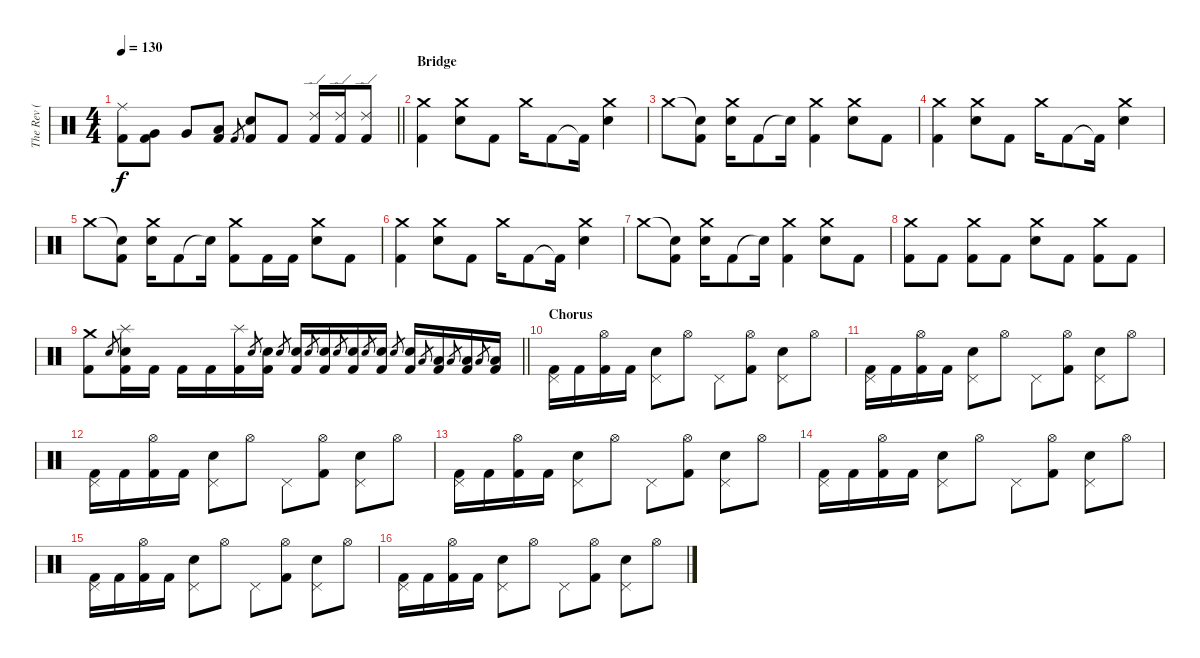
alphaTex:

\track ("The Rev ( Drums )" "The Rev ( ") {instrument percussion}
\staff {score}
\articulation defaults
\ts (4 4)
\tempo 130
\clef neutral
\barLineRight lightlight
\ks c
("Ride (middle)" "Kick (hit) 2").8{dy f} ("Very Low Tom (hit)" "Kick (hit) 2").8 "Very Low Tom (hit)".8 ("Low Floor Tom (hit)" "Kick (hit) 2").8 "Kick (hit) 2".8{gr} ("Snare (hit) 2" "Kick (hit) 2").8 "Kick (hit) 2".8 ("Ride (edge) 2" "Kick (hit) 2").16 ("Ride (edge) 2" "Kick (hit) 2").16 ("Ride (edge) 2" "Kick (hit) 2").8 |
\section ("" "Bridge")
("Crash medium (hit)" "Kick (hit) 2").4 ("Crash medium (hit)" "Snare (hit) 2").8 "Kick (hit) 2".8 "Crash medium (hit)".16 "Kick (hit) 2".8 "Kick (hit) 2"{t}.16 ("Crash medium (hit)" "Snare (hit) 2").4 |
"Crash medium (hit)".8 ("Snare (hit)"{t} "Kick (hit) 2").8 ("Crash medium (hit)" "Snare (hit) 2").16 "Kick (hit) 2".8 "Snare (hit)"{t}.16 ("Crash medium (hit)" "Kick (hit) 2").4 ("Crash medium (hit)" "Snare (hit) 2").8 "Kick (hit) 2".8 |
("Crash medium (hit)" "Kick (hit) 2").4 ("Crash medium (hit)" "Snare (hit) 2").8 "Kick (hit) 2".8 "Crash medium (hit)".16 "Kick (hit) 2".8 "Kick (hit) 2"{t}.16 ("Crash medium (hit)" "Snare (hit) 2").4 |
"Crash medium (hit)".8 ("Snare (hit)"{t} "Kick (hit) 2").8 ("Crash medium (hit)" "Snare (hit) 2").16 "Kick (hit) 2".8 "Snare (hit)"{t}.16 ("Crash medium (hit)" "Kick (hit) 2").8 "Kick (hit) 2".16 "Kick (hit) 2".16 ("Crash medium (hit)" "Snare (hit) 2").8 "Kick (hit) 2".8 |
("Crash medium (hit)" "Kick (hit) 2").4 ("Crash medium (hit)" "Snare (hit) 2").8 "Kick (hit) 2".8 "Crash medium (hit)".16 "Kick (hit) 2".8 "Kick (hit) 2"{t}.16 ("Crash medium (hit)" "Snare (hit) 2").4 |
"Crash medium (hit)".8 ("Snare (hit)"{t} "Kick (hit) 2").8 ("Crash medium (hit)" "Snare (hit) 2").16 "Kick (hit) 2".8 "Snare (hit)"{t}.16 ("Crash medium (hit)" "Kick (hit) 2").4 ("Crash medium (hit)" "Snare (hit) 2").8 "Kick (hit) 2".8 |
("Crash medium (hit)" "Kick (hit) 2").8 "Kick (hit) 2".8 ("Crash medium (hit)" "Kick (hit) 2").8 "Kick (hit) 2".8 ("Crash medium (hit)" "Snare (hit) 2").8 "Kick (hit) 2".8 ("Crash medium (hit)" "Kick (hit) 2").8 "Kick (hit) 2".8 |
\barLineRight lightlight
("Crash medium (hit)" "Kick (hit) 2").8 "Snare (hit) 2".8{gr} ("Splash (hit)" "Snare (hit) 2" "Kick (hit) 2").16 "Kick (hit) 2".16 "Kick (hit) 2".16 "Kick (hit) 2".16 ("Splash (hit)" "Kick (hit) 2").16 "Snare (hit) 2".8{gr} ("Snare (hit) 2" "Kick (hit) 2").16 "Snare (hit) 2".8{gr} ("Snare (hit) 2" "Kick (hit) 2").16 "Snare (hit) 2".8{gr} ("Snare (hit) 2" "Kick (hit) 2").16 "Snare (hit) 2".8{gr} ("Snare (hit) 2" "Kick (hit) 2").16 "Snare (hit) 2".8{gr} ("Snare (hit) 2" "Kick (hit) 2").16 "Snare (hit) 2".8{gr} ("Snare (hit) 2" "Kick (hit) 2").16 "Low Tom (hit)".8{gr} ("Low Tom (hit)" "Kick (hit) 2").16 "Low Tom (hit)".8{gr} ("Low Tom (hit)" "Kick (hit) 2").16 "Low Tom (hit)".8{gr} ("Low Tom (hit)" "Kick (hit) 2").16 |
\section ("" "Chorus")
("Pedal Hi-Hat (hit)" "Kick (hit) 2").16 "Kick (hit) 2".16 ("Hi-Hat (open)" "Kick (hit) 2").16 "Kick (hit) 2".16 ("Pedal Hi-Hat (hit)" "Snare (hit) 2").8 "Hi-Hat (open)".8 "Pedal Hi-Hat (hit)".8 ("Hi-Hat (open)" "Kick (hit) 2").8 ("Pedal Hi-Hat (hit)" "Snare (hit) 2").8 "Hi-Hat (open)".8 |
("Pedal Hi-Hat (hit)" "Kick (hit) 2").16 "Kick (hit) 2".16 ("Hi-Hat (open)" "Kick (hit) 2").16 "Kick (hit) 2".16 ("Pedal Hi-Hat (hit)" "Snare (hit) 2").8 "Hi-Hat (open)".8 "Pedal Hi-Hat (hit)".8 ("Hi-Hat (open)" "Kick (hit) 2").8 ("Pedal Hi-Hat (hit)" "Snare (hit) 2").8 "Hi-Hat (open)".8 |
("Pedal Hi-Hat (hit)" "Kick (hit) 2").16 "Kick (hit) 2".16 ("Hi-Hat (open)" "Kick (hit) 2").16 "Kick (hit) 2".16 ("Pedal Hi-Hat (hit)" "Snare (hit) 2").8 "Hi-Hat (open)".8 "Pedal Hi-Hat (hit)".8 ("Hi-Hat (open)" "Kick (hit) 2").8 ("Pedal Hi-Hat (hit)" "Snare (hit) 2").8 "Hi-Hat (open)".8 |
("Pedal Hi-Hat (hit)" "Kick (hit) 2").16 "Kick (hit) 2".16 ("Hi-Hat (open)" "Kick (hit) 2").16 "Kick (hit) 2".16 ("Pedal Hi-Hat (hit)" "Snare (hit) 2").8 "Hi-Hat (open)".8 "Pedal Hi-Hat (hit)".8 ("Hi-Hat (open)" "Kick (hit) 2").8 ("Pedal Hi-Hat (hit)" "Snare (hit) 2").8 "Hi-Hat (open)".8 |
("Pedal Hi-Hat (hit)" "Kick (hit) 2").16 "Kick (hit) 2".16 ("Hi-Hat (open)" "Kick (hit) 2").16 "Kick (hit) 2".16 ("Pedal Hi-Hat (hit)" "Snare (hit) 2").8 "Hi-Hat (open)".8 "Pedal Hi-Hat (hit)".8 ("Hi-Hat (open)" "Kick (hit) 2").8 ("Pedal Hi-Hat (hit)" "Snare (hit) 2").8 "Hi-Hat (open)".8 |
("Pedal Hi-Hat (hit)" "Kick (hit) 2").16 "Kick (hit) 2".16 ("Hi-Hat (open)" "Kick (hit) 2").16 "Kick (hit) 2".16 ("Pedal Hi-Hat (hit)" "Snare (hit) 2").8 "Hi-Hat (open)".8 "Pedal Hi-Hat (hit)".8 ("Hi-Hat (open)" "Kick (hit) 2").8 ("Pedal Hi-Hat (hit)" "Snare (hit) 2").8 "Hi-Hat (open)".8 |
("Pedal Hi-Hat (hit)" "Kick (hit) 2").16 "Kick (hit) 2".16 ("Hi-Hat (open)" "Kick (hit) 2").16 "Kick (hit) 2".16 ("Pedal Hi-Hat (hit)" "Snare (hit) 2").8 "Hi-Hat (open)".8 "Pedal Hi-Hat (hit)".8 ("Hi-Hat (open)" "Kick (hit) 2").8 ("Pedal Hi-Hat (hit)" "Snare (hit) 2").8 "Hi-Hat (open)".8
